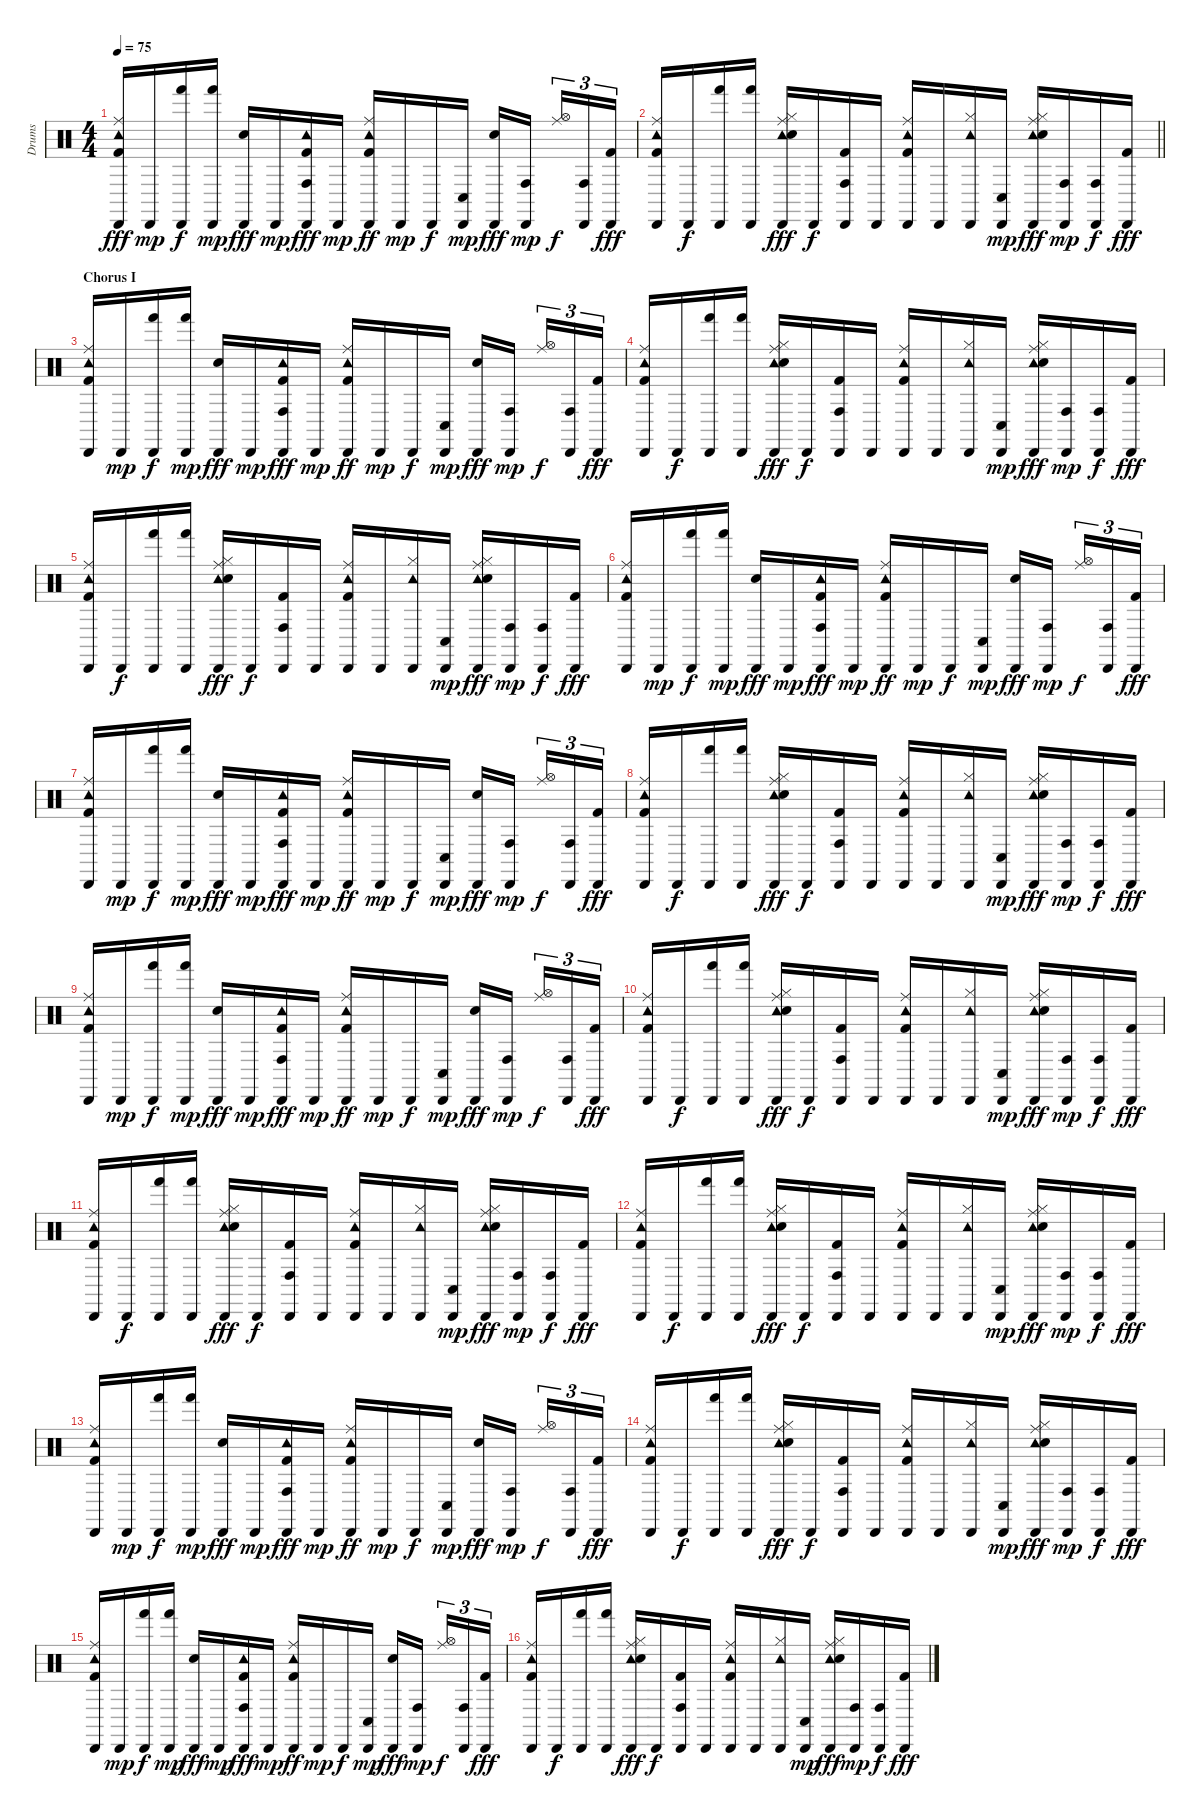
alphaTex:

\track ("Drums" "Drums") {instrument percussion}
\staff {score}
\articulation defaults
\ts (4 4)
\tempo 75
\clef neutral
\ks c
("Cabasa (hit)" "Tambourine (hit)" "Kick (hit) 2" "Ride (middle)").16{dy fff} "Cabasa (hit)".16{dy mp} ("Cabasa (hit)" "Hand (hit)").16{dy f} ("Cabasa (hit)" "Hand (hit)").16{dy mp} ("Cabasa (hit)" "Snare (hit) 2").16{dy fff} "Cabasa (hit)".16{dy mp} ("Cabasa (hit)" "Conga high (hit)" "Tambourine (hit)" "Kick (hit) 2").16{dy fff} "Cabasa (hit)".16{dy mp} ("Tambourine (hit)" "Kick (hit) 2" "Ride (middle)" "Cabasa (hit)").16{dy ff} "Cabasa (hit)".16{dy mp} "Cabasa (hit)".16{dy f} ("Cabasa (hit)" "Conga low (hit)").16{dy mp} ("Cabasa (hit)" "Snare (hit) 2").16{dy fff} ("Cabasa (hit)" "Conga high (hit)").16{dy mp beam splitsecondary} ("Ride (middle)" "Hi-Hat (open)").16{tu (3 2) dy f} ("Cabasa (hit)" "Conga high (hit)").16{tu (3 2)} ("Cabasa (hit)" "Kick (hit) 2").16{tu (3 2) dy fff} |
\barLineRight lightlight
("Ride (middle)" "Tambourine (hit)" "Kick (hit) 2" "Cabasa (hit)").16 "Cabasa (hit)".16{dy f} ("Hand (hit)" "Cabasa (hit)").16 ("Hand (hit)" "Cabasa (hit)").16 ("Cabasa (hit)" "Hi-Hat (closed)" "Tambourine (hit)" "Snare (hit) 2" "Ride (middle)").16{dy fff} "Cabasa (hit)".16{dy f} ("Conga high (hit)" "Kick (hit) 2" "Cabasa (hit)").16 "Cabasa (hit)".16 ("Ride (middle)" "Tambourine (hit)" "Kick (hit) 2" "Cabasa (hit)").16 "Cabasa (hit)".16 ("Cabasa (hit)" "Hi-Hat (closed)" "Tambourine (hit)").16 ("Cabasa (hit)" "Conga low (hit)").16{dy mp} ("Cabasa (hit)" "Hi-Hat (closed)" "Tambourine (hit)" "Snare (hit) 2" "Ride (middle)").16{dy fff} ("Cabasa (hit)" "Conga high (hit)").16{dy mp} ("Cabasa (hit)" "Conga high (hit)").16{dy f} ("Cabasa (hit)" "Kick (hit) 2").16{dy fff} |
\section ("" "Chorus I")
("Cabasa (hit)" "Tambourine (hit)" "Kick (hit) 2" "Ride (middle)").16 "Cabasa (hit)".16{dy mp} ("Cabasa (hit)" "Hand (hit)").16{dy f} ("Cabasa (hit)" "Hand (hit)").16{dy mp} ("Cabasa (hit)" "Snare (hit) 2").16{dy fff} "Cabasa (hit)".16{dy mp} ("Cabasa (hit)" "Conga high (hit)" "Tambourine (hit)" "Kick (hit) 2").16{dy fff} "Cabasa (hit)".16{dy mp} ("Tambourine (hit)" "Kick (hit) 2" "Ride (middle)" "Cabasa (hit)").16{dy ff} "Cabasa (hit)".16{dy mp} "Cabasa (hit)".16{dy f} ("Cabasa (hit)" "Conga low (hit)").16{dy mp} ("Cabasa (hit)" "Snare (hit) 2").16{dy fff} ("Cabasa (hit)" "Conga high (hit)").16{dy mp beam splitsecondary} ("Ride (middle)" "Hi-Hat (open)").16{tu (3 2) dy f} ("Cabasa (hit)" "Conga high (hit)").16{tu (3 2)} ("Cabasa (hit)" "Kick (hit) 2").16{tu (3 2) dy fff} |
("Ride (middle)" "Tambourine (hit)" "Kick (hit) 2" "Cabasa (hit)").16 "Cabasa (hit)".16{dy f} ("Hand (hit)" "Cabasa (hit)").16 ("Hand (hit)" "Cabasa (hit)").16 ("Cabasa (hit)" "Hi-Hat (closed)" "Tambourine (hit)" "Snare (hit) 2" "Ride (middle)").16{dy fff} "Cabasa (hit)".16{dy f} ("Conga high (hit)" "Kick (hit) 2" "Cabasa (hit)").16 "Cabasa (hit)".16 ("Ride (middle)" "Tambourine (hit)" "Kick (hit) 2" "Cabasa (hit)").16 "Cabasa (hit)".16 ("Cabasa (hit)" "Hi-Hat (closed)" "Tambourine (hit)").16 ("Cabasa (hit)" "Conga low (hit)").16{dy mp} ("Cabasa (hit)" "Hi-Hat (closed)" "Tambourine (hit)" "Snare (hit) 2" "Ride (middle)").16{dy fff} ("Cabasa (hit)" "Conga high (hit)").16{dy mp} ("Cabasa (hit)" "Conga high (hit)").16{dy f} ("Cabasa (hit)" "Kick (hit) 2").16{dy fff} |
("Ride (middle)" "Tambourine (hit)" "Kick (hit) 2" "Cabasa (hit)").16 "Cabasa (hit)".16{dy f} ("Hand (hit)" "Cabasa (hit)").16 ("Hand (hit)" "Cabasa (hit)").16 ("Cabasa (hit)" "Hi-Hat (closed)" "Tambourine (hit)" "Snare (hit) 2" "Ride (middle)").16{dy fff} "Cabasa (hit)".16{dy f} ("Conga high (hit)" "Kick (hit) 2" "Cabasa (hit)").16 "Cabasa (hit)".16 ("Ride (middle)" "Tambourine (hit)" "Kick (hit) 2" "Cabasa (hit)").16 "Cabasa (hit)".16 ("Cabasa (hit)" "Hi-Hat (closed)" "Tambourine (hit)").16 ("Cabasa (hit)" "Conga low (hit)").16{dy mp} ("Cabasa (hit)" "Hi-Hat (closed)" "Tambourine (hit)" "Snare (hit) 2" "Ride (middle)").16{dy fff} ("Cabasa (hit)" "Conga high (hit)").16{dy mp} ("Cabasa (hit)" "Conga high (hit)").16{dy f} ("Cabasa (hit)" "Kick (hit) 2").16{dy fff} |
("Cabasa (hit)" "Tambourine (hit)" "Kick (hit) 2" "Ride (middle)").16 "Cabasa (hit)".16{dy mp} ("Cabasa (hit)" "Hand (hit)").16{dy f} ("Cabasa (hit)" "Hand (hit)").16{dy mp} ("Cabasa (hit)" "Snare (hit) 2").16{dy fff} "Cabasa (hit)".16{dy mp} ("Cabasa (hit)" "Conga high (hit)" "Tambourine (hit)" "Kick (hit) 2").16{dy fff} "Cabasa (hit)".16{dy mp} ("Tambourine (hit)" "Kick (hit) 2" "Ride (middle)" "Cabasa (hit)").16{dy ff} "Cabasa (hit)".16{dy mp} "Cabasa (hit)".16{dy f} ("Cabasa (hit)" "Conga low (hit)").16{dy mp} ("Cabasa (hit)" "Snare (hit) 2").16{dy fff} ("Cabasa (hit)" "Conga high (hit)").16{dy mp beam splitsecondary} ("Ride (middle)" "Hi-Hat (open)").16{tu (3 2) dy f} ("Cabasa (hit)" "Conga high (hit)").16{tu (3 2)} ("Cabasa (hit)" "Kick (hit) 2").16{tu (3 2) dy fff} |
("Cabasa (hit)" "Tambourine (hit)" "Kick (hit) 2" "Ride (middle)").16 "Cabasa (hit)".16{dy mp} ("Cabasa (hit)" "Hand (hit)").16{dy f} ("Cabasa (hit)" "Hand (hit)").16{dy mp} ("Cabasa (hit)" "Snare (hit) 2").16{dy fff} "Cabasa (hit)".16{dy mp} ("Cabasa (hit)" "Conga high (hit)" "Tambourine (hit)" "Kick (hit) 2").16{dy fff} "Cabasa (hit)".16{dy mp} ("Tambourine (hit)" "Kick (hit) 2" "Ride (middle)" "Cabasa (hit)").16{dy ff} "Cabasa (hit)".16{dy mp} "Cabasa (hit)".16{dy f} ("Cabasa (hit)" "Conga low (hit)").16{dy mp} ("Cabasa (hit)" "Snare (hit) 2").16{dy fff} ("Cabasa (hit)" "Conga high (hit)").16{dy mp beam splitsecondary} ("Ride (middle)" "Hi-Hat (open)").16{tu (3 2) dy f} ("Cabasa (hit)" "Conga high (hit)").16{tu (3 2)} ("Cabasa (hit)" "Kick (hit) 2").16{tu (3 2) dy fff} |
("Ride (middle)" "Tambourine (hit)" "Kick (hit) 2" "Cabasa (hit)").16 "Cabasa (hit)".16{dy f} ("Hand (hit)" "Cabasa (hit)").16 ("Hand (hit)" "Cabasa (hit)").16 ("Cabasa (hit)" "Hi-Hat (closed)" "Tambourine (hit)" "Snare (hit) 2" "Ride (middle)").16{dy fff} "Cabasa (hit)".16{dy f} ("Conga high (hit)" "Kick (hit) 2" "Cabasa (hit)").16 "Cabasa (hit)".16 ("Ride (middle)" "Tambourine (hit)" "Kick (hit) 2" "Cabasa (hit)").16 "Cabasa (hit)".16 ("Cabasa (hit)" "Hi-Hat (closed)" "Tambourine (hit)").16 ("Cabasa (hit)" "Conga low (hit)").16{dy mp} ("Cabasa (hit)" "Hi-Hat (closed)" "Tambourine (hit)" "Snare (hit) 2" "Ride (middle)").16{dy fff} ("Cabasa (hit)" "Conga high (hit)").16{dy mp} ("Cabasa (hit)" "Conga high (hit)").16{dy f} ("Cabasa (hit)" "Kick (hit) 2").16{dy fff} |
("Cabasa (hit)" "Tambourine (hit)" "Kick (hit) 2" "Ride (middle)").16 "Cabasa (hit)".16{dy mp} ("Cabasa (hit)" "Hand (hit)").16{dy f} ("Cabasa (hit)" "Hand (hit)").16{dy mp} ("Cabasa (hit)" "Snare (hit) 2").16{dy fff} "Cabasa (hit)".16{dy mp} ("Cabasa (hit)" "Conga high (hit)" "Tambourine (hit)" "Kick (hit) 2").16{dy fff} "Cabasa (hit)".16{dy mp} ("Tambourine (hit)" "Kick (hit) 2" "Ride (middle)" "Cabasa (hit)").16{dy ff} "Cabasa (hit)".16{dy mp} "Cabasa (hit)".16{dy f} ("Cabasa (hit)" "Conga low (hit)").16{dy mp} ("Cabasa (hit)" "Snare (hit) 2").16{dy fff} ("Cabasa (hit)" "Conga high (hit)").16{dy mp beam splitsecondary} ("Ride (middle)" "Hi-Hat (open)").16{tu (3 2) dy f} ("Cabasa (hit)" "Conga high (hit)").16{tu (3 2)} ("Cabasa (hit)" "Kick (hit) 2").16{tu (3 2) dy fff} |
("Ride (middle)" "Tambourine (hit)" "Kick (hit) 2" "Cabasa (hit)").16 "Cabasa (hit)".16{dy f} ("Hand (hit)" "Cabasa (hit)").16 ("Hand (hit)" "Cabasa (hit)").16 ("Cabasa (hit)" "Hi-Hat (closed)" "Tambourine (hit)" "Snare (hit) 2" "Ride (middle)").16{dy fff} "Cabasa (hit)".16{dy f} ("Conga high (hit)" "Kick (hit) 2" "Cabasa (hit)").16 "Cabasa (hit)".16 ("Ride (middle)" "Tambourine (hit)" "Kick (hit) 2" "Cabasa (hit)").16 "Cabasa (hit)".16 ("Cabasa (hit)" "Hi-Hat (closed)" "Tambourine (hit)").16 ("Cabasa (hit)" "Conga low (hit)").16{dy mp} ("Cabasa (hit)" "Hi-Hat (closed)" "Tambourine (hit)" "Snare (hit) 2" "Ride (middle)").16{dy fff} ("Cabasa (hit)" "Conga high (hit)").16{dy mp} ("Cabasa (hit)" "Conga high (hit)").16{dy f} ("Cabasa (hit)" "Kick (hit) 2").16{dy fff} |
("Ride (middle)" "Tambourine (hit)" "Kick (hit) 2" "Cabasa (hit)").16 "Cabasa (hit)".16{dy f} ("Hand (hit)" "Cabasa (hit)").16 ("Hand (hit)" "Cabasa (hit)").16 ("Cabasa (hit)" "Hi-Hat (closed)" "Tambourine (hit)" "Snare (hit) 2" "Ride (middle)").16{dy fff} "Cabasa (hit)".16{dy f} ("Conga high (hit)" "Kick (hit) 2" "Cabasa (hit)").16 "Cabasa (hit)".16 ("Ride (middle)" "Tambourine (hit)" "Kick (hit) 2" "Cabasa (hit)").16 "Cabasa (hit)".16 ("Cabasa (hit)" "Hi-Hat (closed)" "Tambourine (hit)").16 ("Cabasa (hit)" "Conga low (hit)").16{dy mp} ("Cabasa (hit)" "Hi-Hat (closed)" "Tambourine (hit)" "Snare (hit) 2" "Ride (middle)").16{dy fff} ("Cabasa (hit)" "Conga high (hit)").16{dy mp} ("Cabasa (hit)" "Conga high (hit)").16{dy f} ("Cabasa (hit)" "Kick (hit) 2").16{dy fff} |
("Ride (middle)" "Tambourine (hit)" "Kick (hit) 2" "Cabasa (hit)").16 "Cabasa (hit)".16{dy f} ("Hand (hit)" "Cabasa (hit)").16 ("Hand (hit)" "Cabasa (hit)").16 ("Cabasa (hit)" "Hi-Hat (closed)" "Tambourine (hit)" "Snare (hit) 2" "Ride (middle)").16{dy fff} "Cabasa (hit)".16{dy f} ("Conga high (hit)" "Kick (hit) 2" "Cabasa (hit)").16 "Cabasa (hit)".16 ("Ride (middle)" "Tambourine (hit)" "Kick (hit) 2" "Cabasa (hit)").16 "Cabasa (hit)".16 ("Cabasa (hit)" "Hi-Hat (closed)" "Tambourine (hit)").16 ("Cabasa (hit)" "Conga low (hit)").16{dy mp} ("Cabasa (hit)" "Hi-Hat (closed)" "Tambourine (hit)" "Snare (hit) 2" "Ride (middle)").16{dy fff} ("Cabasa (hit)" "Conga high (hit)").16{dy mp} ("Cabasa (hit)" "Conga high (hit)").16{dy f} ("Cabasa (hit)" "Kick (hit) 2").16{dy fff} |
("Cabasa (hit)" "Tambourine (hit)" "Kick (hit) 2" "Ride (middle)").16 "Cabasa (hit)".16{dy mp} ("Cabasa (hit)" "Hand (hit)").16{dy f} ("Cabasa (hit)" "Hand (hit)").16{dy mp} ("Cabasa (hit)" "Snare (hit) 2").16{dy fff} "Cabasa (hit)".16{dy mp} ("Cabasa (hit)" "Conga high (hit)" "Tambourine (hit)" "Kick (hit) 2").16{dy fff} "Cabasa (hit)".16{dy mp} ("Tambourine (hit)" "Kick (hit) 2" "Ride (middle)" "Cabasa (hit)").16{dy ff} "Cabasa (hit)".16{dy mp} "Cabasa (hit)".16{dy f} ("Cabasa (hit)" "Conga low (hit)").16{dy mp} ("Cabasa (hit)" "Snare (hit) 2").16{dy fff} ("Cabasa (hit)" "Conga high (hit)").16{dy mp beam splitsecondary} ("Ride (middle)" "Hi-Hat (open)").16{tu (3 2) dy f} ("Cabasa (hit)" "Conga high (hit)").16{tu (3 2)} ("Cabasa (hit)" "Kick (hit) 2").16{tu (3 2) dy fff} |
("Ride (middle)" "Tambourine (hit)" "Kick (hit) 2" "Cabasa (hit)").16 "Cabasa (hit)".16{dy f} ("Hand (hit)" "Cabasa (hit)").16 ("Hand (hit)" "Cabasa (hit)").16 ("Cabasa (hit)" "Hi-Hat (closed)" "Tambourine (hit)" "Snare (hit) 2" "Ride (middle)").16{dy fff} "Cabasa (hit)".16{dy f} ("Conga high (hit)" "Kick (hit) 2" "Cabasa (hit)").16 "Cabasa (hit)".16 ("Ride (middle)" "Tambourine (hit)" "Kick (hit) 2" "Cabasa (hit)").16 "Cabasa (hit)".16 ("Cabasa (hit)" "Hi-Hat (closed)" "Tambourine (hit)").16 ("Cabasa (hit)" "Conga low (hit)").16{dy mp} ("Cabasa (hit)" "Hi-Hat (closed)" "Tambourine (hit)" "Snare (hit) 2" "Ride (middle)").16{dy fff} ("Cabasa (hit)" "Conga high (hit)").16{dy mp} ("Cabasa (hit)" "Conga high (hit)").16{dy f} ("Cabasa (hit)" "Kick (hit) 2").16{dy fff} |
("Cabasa (hit)" "Tambourine (hit)" "Kick (hit) 2" "Ride (middle)").16 "Cabasa (hit)".16{dy mp} ("Cabasa (hit)" "Hand (hit)").16{dy f} ("Cabasa (hit)" "Hand (hit)").16{dy mp} ("Cabasa (hit)" "Snare (hit) 2").16{dy fff} "Cabasa (hit)".16{dy mp} ("Cabasa (hit)" "Conga high (hit)" "Tambourine (hit)" "Kick (hit) 2").16{dy fff} "Cabasa (hit)".16{dy mp} ("Tambourine (hit)" "Kick (hit) 2" "Ride (middle)" "Cabasa (hit)").16{dy ff} "Cabasa (hit)".16{dy mp} "Cabasa (hit)".16{dy f} ("Cabasa (hit)" "Conga low (hit)").16{dy mp} ("Cabasa (hit)" "Snare (hit) 2").16{dy fff} ("Cabasa (hit)" "Conga high (hit)").16{dy mp beam splitsecondary} ("Ride (middle)" "Hi-Hat (open)").16{tu (3 2) dy f} ("Cabasa (hit)" "Conga high (hit)").16{tu (3 2)} ("Cabasa (hit)" "Kick (hit) 2").16{tu (3 2) dy fff} |
("Ride (middle)" "Tambourine (hit)" "Kick (hit) 2" "Cabasa (hit)").16 "Cabasa (hit)".16{dy f} ("Hand (hit)" "Cabasa (hit)").16 ("Hand (hit)" "Cabasa (hit)").16 ("Cabasa (hit)" "Hi-Hat (closed)" "Tambourine (hit)" "Snare (hit) 2" "Ride (middle)").16{dy fff} "Cabasa (hit)".16{dy f} ("Conga high (hit)" "Kick (hit) 2" "Cabasa (hit)").16 "Cabasa (hit)".16 ("Ride (middle)" "Tambourine (hit)" "Kick (hit) 2" "Cabasa (hit)").16 "Cabasa (hit)".16 ("Cabasa (hit)" "Hi-Hat (closed)" "Tambourine (hit)").16 ("Cabasa (hit)" "Conga low (hit)").16{dy mp} ("Cabasa (hit)" "Hi-Hat (closed)" "Tambourine (hit)" "Snare (hit) 2" "Ride (middle)").16{dy fff} ("Cabasa (hit)" "Conga high (hit)").16{dy mp} ("Cabasa (hit)" "Conga high (hit)").16{dy f} ("Cabasa (hit)" "Kick (hit) 2").16{dy fff}
